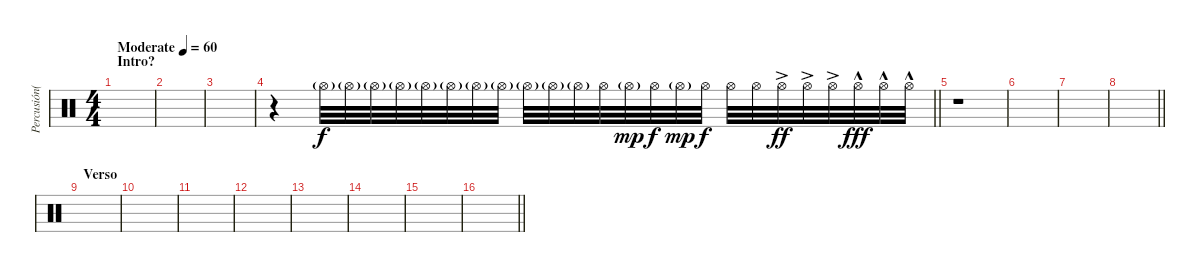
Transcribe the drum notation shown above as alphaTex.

\track ("Percusión(Sebastián)" "Percusión(") {instrument percussion}
\staff {score}
\articulation defaults
\ts (4 4)
\section ("" "Intro?")
\tempo (60 "Moderate")
\clef neutral
\ks c
|
|
|
\barLineRight lightlight
r.4{volume 9} "Hi-Hat (open)"{g}.32 "Hi-Hat (open)"{g}.32 "Hi-Hat (open)"{g}.32 "Hi-Hat (open)"{g}.32 "Hi-Hat (open)"{g}.32 "Hi-Hat (open)"{g}.32 "Hi-Hat (open)"{g}.32 "Hi-Hat (open)"{g}.32 "Hi-Hat (open)"{g}.32 "Hi-Hat (open)"{g}.32 "Hi-Hat (open)"{g}.32 "Hi-Hat (open)".32{dy f} "Hi-Hat (open)"{g}.32{dy mp} "Hi-Hat (open)".32{dy f} "Hi-Hat (open)"{g}.32{dy mp} "Hi-Hat (open)".32{dy f} "Hi-Hat (open)".32 "Hi-Hat (open)".32 "Hi-Hat (open)"{ac}.32{dy ff} "Hi-Hat (open)"{ac}.32 "Hi-Hat (open)"{ac}.32 "Hi-Hat (open)"{hac}.32{dy fff} "Hi-Hat (open)"{hac}.32 "Hi-Hat (open)"{hac}.32 |
\section ("" "")
r.1{volume 13 balance 8} |
|
|
\barLineRight lightlight
|
\section ("" "Verso")
|
|
|
|
|
|
|
\barLineRight lightlight
